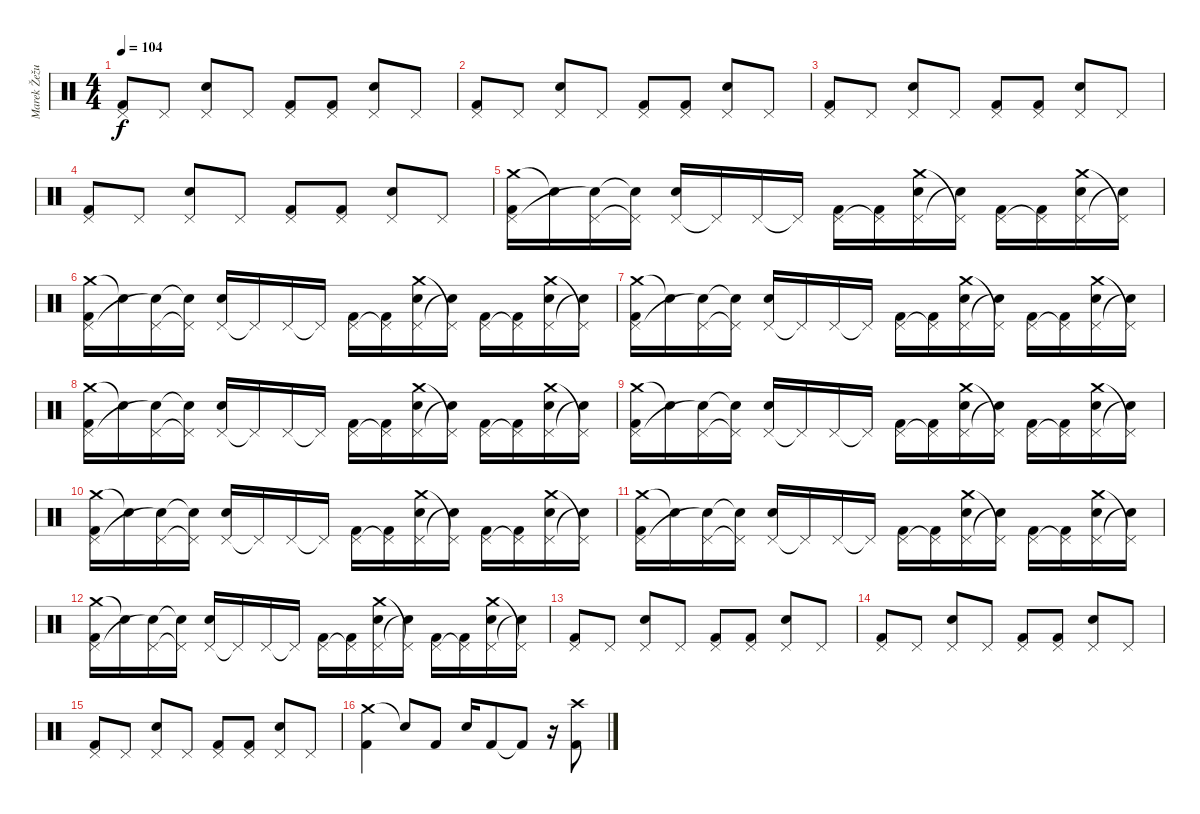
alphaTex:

\track ("Marek Žežulka" "Marek Žežu") {instrument percussion}
\staff {score}
\articulation defaults
\ts (4 4)
\tempo 104
\clef neutral
\ks c
("Pedal Hi-Hat (hit)" "Kick (hit) 2").8{dy f} "Pedal Hi-Hat (hit)".8 ("Pedal Hi-Hat (hit)" "Electric Snare (hit)").8 "Pedal Hi-Hat (hit)".8 ("Pedal Hi-Hat (hit)" "Kick (hit) 2").8 ("Pedal Hi-Hat (hit)" "Kick (hit) 2").8 ("Pedal Hi-Hat (hit)" "Electric Snare (hit)").8 "Pedal Hi-Hat (hit)".8 |
("Pedal Hi-Hat (hit)" "Kick (hit) 2").8 "Pedal Hi-Hat (hit)".8 ("Pedal Hi-Hat (hit)" "Electric Snare (hit)").8 "Pedal Hi-Hat (hit)".8 ("Pedal Hi-Hat (hit)" "Kick (hit) 2").8 ("Pedal Hi-Hat (hit)" "Kick (hit) 2").8 ("Pedal Hi-Hat (hit)" "Electric Snare (hit)").8 "Pedal Hi-Hat (hit)".8 |
("Pedal Hi-Hat (hit)" "Kick (hit) 2").8 "Pedal Hi-Hat (hit)".8 ("Pedal Hi-Hat (hit)" "Electric Snare (hit)").8 "Pedal Hi-Hat (hit)".8 ("Pedal Hi-Hat (hit)" "Kick (hit) 2").8 ("Pedal Hi-Hat (hit)" "Kick (hit) 2").8 ("Pedal Hi-Hat (hit)" "Electric Snare (hit)").8 "Pedal Hi-Hat (hit)".8 |
("Pedal Hi-Hat (hit)" "Kick (hit) 2").8 "Pedal Hi-Hat (hit)".8 ("Pedal Hi-Hat (hit)" "Electric Snare (hit)").8 "Pedal Hi-Hat (hit)".8 ("Pedal Hi-Hat (hit)" "Kick (hit) 2").8 ("Pedal Hi-Hat (hit)" "Kick (hit) 2").8 ("Pedal Hi-Hat (hit)" "Electric Snare (hit)").8 "Pedal Hi-Hat (hit)".8 |
("Crash medium (hit)" "Pedal Hi-Hat (hit)" "Kick (hit) 2").16 "Electric Snare (hit)"{t}.16 ("Pedal Hi-Hat (hit)" "Electric Snare (hit)"{t}).16 ("Pedal Hi-Hat (hit)"{t} "Electric Snare (hit)"{t}).16 ("Pedal Hi-Hat (hit)" "Electric Snare (hit)").16 "Pedal Hi-Hat (hit)"{t}.16 "Pedal Hi-Hat (hit)".16 "Pedal Hi-Hat (hit)"{t}.16 ("Pedal Hi-Hat (hit)" "Kick (hit) 2").16 ("Pedal Hi-Hat (hit)"{t} "Kick (hit) 2").16 ("Crash medium (hit)" "Pedal Hi-Hat (hit)" "Electric Snare (hit)").16 ("Pedal Hi-Hat (hit)"{t} "Electric Snare (hit)"{t}).16 ("Pedal Hi-Hat (hit)" "Kick (hit) 2").16 ("Pedal Hi-Hat (hit)"{t} "Kick (hit) 2").16 ("Crash medium (hit)" "Pedal Hi-Hat (hit)" "Electric Snare (hit)").16 ("Pedal Hi-Hat (hit)"{t} "Electric Snare (hit)"{t}).16 |
("Crash medium (hit)" "Pedal Hi-Hat (hit)" "Kick (hit) 2").16 "Electric Snare (hit)"{t}.16 ("Pedal Hi-Hat (hit)" "Electric Snare (hit)"{t}).16 ("Pedal Hi-Hat (hit)"{t} "Electric Snare (hit)"{t}).16 ("Pedal Hi-Hat (hit)" "Electric Snare (hit)").16 "Pedal Hi-Hat (hit)"{t}.16 "Pedal Hi-Hat (hit)".16 "Pedal Hi-Hat (hit)"{t}.16 ("Pedal Hi-Hat (hit)" "Kick (hit) 2").16 ("Pedal Hi-Hat (hit)"{t} "Kick (hit) 2").16 ("Crash medium (hit)" "Pedal Hi-Hat (hit)" "Electric Snare (hit)").16 ("Pedal Hi-Hat (hit)"{t} "Electric Snare (hit)"{t}).16 ("Pedal Hi-Hat (hit)" "Kick (hit) 2").16 ("Pedal Hi-Hat (hit)"{t} "Kick (hit) 2").16 ("Crash medium (hit)" "Pedal Hi-Hat (hit)" "Electric Snare (hit)").16 ("Pedal Hi-Hat (hit)"{t} "Electric Snare (hit)"{t}).16 |
("Crash medium (hit)" "Pedal Hi-Hat (hit)" "Kick (hit) 2").16 "Electric Snare (hit)"{t}.16 ("Pedal Hi-Hat (hit)" "Electric Snare (hit)"{t}).16 ("Pedal Hi-Hat (hit)"{t} "Electric Snare (hit)"{t}).16 ("Pedal Hi-Hat (hit)" "Electric Snare (hit)").16 "Pedal Hi-Hat (hit)"{t}.16 "Pedal Hi-Hat (hit)".16 "Pedal Hi-Hat (hit)"{t}.16 ("Pedal Hi-Hat (hit)" "Kick (hit) 2").16 ("Pedal Hi-Hat (hit)"{t} "Kick (hit) 2").16 ("Crash medium (hit)" "Pedal Hi-Hat (hit)" "Electric Snare (hit)").16 ("Pedal Hi-Hat (hit)"{t} "Electric Snare (hit)"{t}).16 ("Pedal Hi-Hat (hit)" "Kick (hit) 2").16 ("Pedal Hi-Hat (hit)"{t} "Kick (hit) 2").16 ("Crash medium (hit)" "Pedal Hi-Hat (hit)" "Electric Snare (hit)").16 ("Pedal Hi-Hat (hit)"{t} "Electric Snare (hit)"{t}).16 |
("Crash medium (hit)" "Pedal Hi-Hat (hit)" "Kick (hit) 2").16 "Electric Snare (hit)"{t}.16 ("Pedal Hi-Hat (hit)" "Electric Snare (hit)"{t}).16 ("Pedal Hi-Hat (hit)"{t} "Electric Snare (hit)"{t}).16 ("Pedal Hi-Hat (hit)" "Electric Snare (hit)").16 "Pedal Hi-Hat (hit)"{t}.16 "Pedal Hi-Hat (hit)".16 "Pedal Hi-Hat (hit)"{t}.16 ("Pedal Hi-Hat (hit)" "Kick (hit) 2").16 ("Pedal Hi-Hat (hit)"{t} "Kick (hit) 2").16 ("Crash medium (hit)" "Pedal Hi-Hat (hit)" "Electric Snare (hit)").16 ("Pedal Hi-Hat (hit)"{t} "Electric Snare (hit)"{t}).16 ("Pedal Hi-Hat (hit)" "Kick (hit) 2").16 ("Pedal Hi-Hat (hit)"{t} "Kick (hit) 2").16 ("Crash medium (hit)" "Pedal Hi-Hat (hit)" "Electric Snare (hit)").16 ("Pedal Hi-Hat (hit)"{t} "Electric Snare (hit)"{t}).16 |
("Crash medium (hit)" "Pedal Hi-Hat (hit)" "Kick (hit) 2").16 "Electric Snare (hit)"{t}.16 ("Pedal Hi-Hat (hit)" "Electric Snare (hit)"{t}).16 ("Pedal Hi-Hat (hit)"{t} "Electric Snare (hit)"{t}).16 ("Pedal Hi-Hat (hit)" "Electric Snare (hit)").16 "Pedal Hi-Hat (hit)"{t}.16 "Pedal Hi-Hat (hit)".16 "Pedal Hi-Hat (hit)"{t}.16 ("Pedal Hi-Hat (hit)" "Kick (hit) 2").16 ("Pedal Hi-Hat (hit)"{t} "Kick (hit) 2").16 ("Crash medium (hit)" "Pedal Hi-Hat (hit)" "Electric Snare (hit)").16 ("Pedal Hi-Hat (hit)"{t} "Electric Snare (hit)"{t}).16 ("Pedal Hi-Hat (hit)" "Kick (hit) 2").16 ("Pedal Hi-Hat (hit)"{t} "Kick (hit) 2").16 ("Crash medium (hit)" "Pedal Hi-Hat (hit)" "Electric Snare (hit)").16 ("Pedal Hi-Hat (hit)"{t} "Electric Snare (hit)"{t}).16 |
("Crash medium (hit)" "Pedal Hi-Hat (hit)" "Kick (hit) 2").16 "Electric Snare (hit)"{t}.16 ("Pedal Hi-Hat (hit)" "Electric Snare (hit)"{t}).16 ("Pedal Hi-Hat (hit)"{t} "Electric Snare (hit)"{t}).16 ("Pedal Hi-Hat (hit)" "Electric Snare (hit)").16 "Pedal Hi-Hat (hit)"{t}.16 "Pedal Hi-Hat (hit)".16 "Pedal Hi-Hat (hit)"{t}.16 ("Pedal Hi-Hat (hit)" "Kick (hit) 2").16 ("Pedal Hi-Hat (hit)"{t} "Kick (hit) 2").16 ("Crash medium (hit)" "Pedal Hi-Hat (hit)" "Electric Snare (hit)").16 ("Pedal Hi-Hat (hit)"{t} "Electric Snare (hit)"{t}).16 ("Pedal Hi-Hat (hit)" "Kick (hit) 2").16 ("Pedal Hi-Hat (hit)"{t} "Kick (hit) 2").16 ("Crash medium (hit)" "Pedal Hi-Hat (hit)" "Electric Snare (hit)").16 ("Pedal Hi-Hat (hit)"{t} "Electric Snare (hit)"{t}).16 |
("Crash medium (hit)" "Pedal Hi-Hat (hit)" "Kick (hit) 2").16 "Electric Snare (hit)"{t}.16 ("Pedal Hi-Hat (hit)" "Electric Snare (hit)"{t}).16 ("Pedal Hi-Hat (hit)"{t} "Electric Snare (hit)"{t}).16 ("Pedal Hi-Hat (hit)" "Electric Snare (hit)").16 "Pedal Hi-Hat (hit)"{t}.16 "Pedal Hi-Hat (hit)".16 "Pedal Hi-Hat (hit)"{t}.16 ("Pedal Hi-Hat (hit)" "Kick (hit) 2").16 ("Pedal Hi-Hat (hit)"{t} "Kick (hit) 2").16 ("Crash medium (hit)" "Pedal Hi-Hat (hit)" "Electric Snare (hit)").16 ("Pedal Hi-Hat (hit)"{t} "Electric Snare (hit)"{t}).16 ("Pedal Hi-Hat (hit)" "Kick (hit) 2").16 ("Pedal Hi-Hat (hit)"{t} "Kick (hit) 2").16 ("Crash medium (hit)" "Pedal Hi-Hat (hit)" "Electric Snare (hit)").16 ("Pedal Hi-Hat (hit)"{t} "Electric Snare (hit)"{t}).16 |
("Crash medium (hit)" "Pedal Hi-Hat (hit)" "Kick (hit) 2").16 "Electric Snare (hit)"{t}.16 ("Pedal Hi-Hat (hit)" "Electric Snare (hit)"{t}).16 ("Pedal Hi-Hat (hit)"{t} "Electric Snare (hit)"{t}).16 ("Pedal Hi-Hat (hit)" "Electric Snare (hit)").16 "Pedal Hi-Hat (hit)"{t}.16 "Pedal Hi-Hat (hit)".16 "Pedal Hi-Hat (hit)"{t}.16 ("Pedal Hi-Hat (hit)" "Kick (hit) 2").16 ("Pedal Hi-Hat (hit)"{t} "Kick (hit) 2").16 ("Crash medium (hit)" "Pedal Hi-Hat (hit)" "Electric Snare (hit)").16 ("Pedal Hi-Hat (hit)"{t} "Electric Snare (hit)"{t}).16 ("Pedal Hi-Hat (hit)" "Kick (hit) 2").16 ("Pedal Hi-Hat (hit)"{t} "Kick (hit) 2").16 ("Crash medium (hit)" "Pedal Hi-Hat (hit)" "Electric Snare (hit)").16 ("Pedal Hi-Hat (hit)"{t} "Electric Snare (hit)"{t}).16 |
("Pedal Hi-Hat (hit)" "Kick (hit) 2").8 "Pedal Hi-Hat (hit)".8 ("Pedal Hi-Hat (hit)" "Electric Snare (hit)").8 "Pedal Hi-Hat (hit)".8 ("Pedal Hi-Hat (hit)" "Kick (hit) 2").8 ("Pedal Hi-Hat (hit)" "Kick (hit) 2").8 ("Pedal Hi-Hat (hit)" "Electric Snare (hit)").8 "Pedal Hi-Hat (hit)".8 |
("Pedal Hi-Hat (hit)" "Kick (hit) 2").8 "Pedal Hi-Hat (hit)".8 ("Pedal Hi-Hat (hit)" "Electric Snare (hit)").8 "Pedal Hi-Hat (hit)".8 ("Pedal Hi-Hat (hit)" "Kick (hit) 2").8 ("Pedal Hi-Hat (hit)" "Kick (hit) 2").8 ("Pedal Hi-Hat (hit)" "Electric Snare (hit)").8 "Pedal Hi-Hat (hit)".8 |
("Pedal Hi-Hat (hit)" "Kick (hit) 2").8 "Pedal Hi-Hat (hit)".8 ("Pedal Hi-Hat (hit)" "Electric Snare (hit)").8 "Pedal Hi-Hat (hit)".8 ("Pedal Hi-Hat (hit)" "Kick (hit) 2").8 ("Pedal Hi-Hat (hit)" "Kick (hit) 2").8 ("Pedal Hi-Hat (hit)" "Electric Snare (hit)").8 "Pedal Hi-Hat (hit)".8 |
("Crash medium (hit)" "Kick (hit) 2").4 "Snare (hit)"{t}.8 "Kick (hit) 2".8 "Electric Snare (hit)".16 "Kick (hit) 2".8 "Kick (hit) 2"{t}.8 r.16 ("Crash high (hit)" "Kick (hit) 2").8
